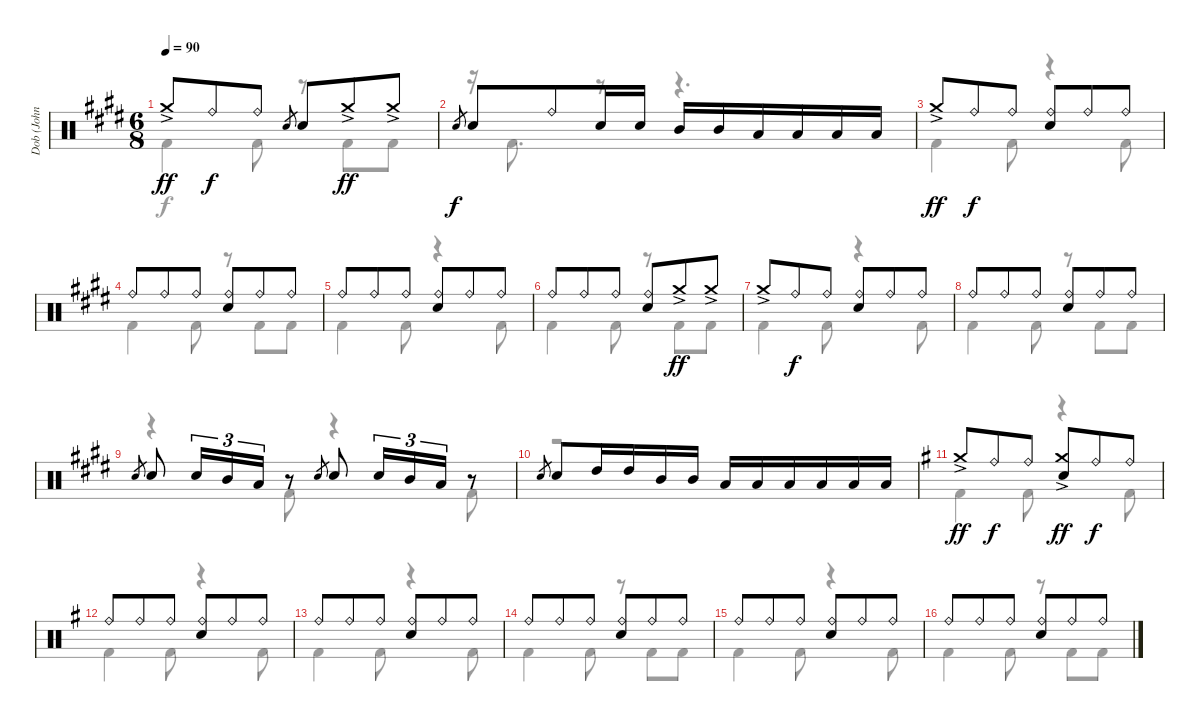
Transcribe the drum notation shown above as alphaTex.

\track ("Dob (John Macaluso)" "Dob (John ") {instrument percussion}
\staff {score}
\articulation defaults
\voice
\ts (6 8)
\tempo 90
\clef neutral
\ks e "Crash medium (hit)"{ac}.8{dy ff} "Ride (bell)".8{dy f} "Ride (bell)".8 "Electric Snare (hit)".8{gr} "Electric Snare (hit)".8 "Crash medium (hit)"{ac}.8{dy ff} "Crash medium (hit)"{ac}.8
|
"Electric Snare (hit)".8{gr dy f} "Electric Snare (hit)".8 "Ride (bell)".8 "Electric Snare (hit)".16 "Electric Snare (hit)".16 "Mid Tom (hit)".16 "Mid Tom (hit)".16 "Low Tom (hit)".16 "Low Tom (hit)".16 "Low Tom (hit)".16 "Low Tom (hit)".16 |
"Crash medium (hit)"{ac}.8{dy ff} "Ride (bell)".8{dy f} "Ride (bell)".8 ("Ride (bell)" "Electric Snare (hit)").8 "Ride (bell)".8 "Ride (bell)".8 |
"Ride (bell)".8 "Ride (bell)".8 "Ride (bell)".8 ("Ride (bell)" "Electric Snare (hit)").8 "Ride (bell)".8 "Ride (bell)".8 |
"Ride (bell)".8 "Ride (bell)".8 "Ride (bell)".8 ("Ride (bell)" "Electric Snare (hit)").8 "Ride (bell)".8 "Ride (bell)".8 |
"Ride (bell)".8 "Ride (bell)".8 "Ride (bell)".8 ("Ride (bell)" "Electric Snare (hit)").8 "Crash medium (hit)"{ac}.8{dy ff} "Crash medium (hit)"{ac}.8 |
"Crash medium (hit)"{ac}.8 "Ride (bell)".8{dy f} "Ride (bell)".8 ("Ride (bell)" "Electric Snare (hit)").8 "Ride (bell)".8 "Ride (bell)".8 |
"Ride (bell)".8 "Ride (bell)".8 "Ride (bell)".8 ("Ride (bell)" "Electric Snare (hit)").8 "Ride (bell)".8 "Ride (bell)".8 |
"Electric Snare (hit)".8{gr} "Electric Snare (hit)".8 "Electric Snare (hit)".16{tu (3 2)} "Mid Tom (hit)".16{tu (3 2)} "Low Tom (hit)".16{tu (3 2)} r.8 "Electric Snare (hit)".8{gr} "Electric Snare (hit)".8 "Electric Snare (hit)".16{tu (3 2)} "Mid Tom (hit)".16{tu (3 2)} "Low Tom (hit)".16{tu (3 2)} r.8 |
"Electric Snare (hit)".8{gr} "Electric Snare (hit)".8 "High Tom (hit)".16 "High Tom (hit)".16 "Mid Tom (hit)".16 "Mid Tom (hit)".16 "Low Tom (hit)".16 "Low Tom (hit)".16 "Low Tom (hit)".16 "Low Tom (hit)".16 "Low Tom (hit)".16 "Low Tom (hit)".16 |
\ks g "Crash medium (hit)"{ac}.8{dy ff} "Ride (bell)".8{dy f} "Ride (bell)".8
("Crash medium (hit)"{ac} "Electric Snare (hit)").8{dy ff} "Ride (bell)".8{dy f} "Ride (bell)".8 |
"Ride (bell)".8 "Ride (bell)".8 "Ride (bell)".8 ("Ride (bell)" "Electric Snare (hit)").8 "Ride (bell)".8 "Ride (bell)".8 |
"Ride (bell)".8 "Ride (bell)".8 "Ride (bell)".8 ("Ride (bell)" "Electric Snare (hit)").8 "Ride (bell)".8 "Ride (bell)".8 |
"Ride (bell)".8 "Ride (bell)".8 "Ride (bell)".8 ("Ride (bell)" "Electric Snare (hit)").8 "Ride (bell)".8 "Ride (bell)".8 |
"Ride (bell)".8 "Ride (bell)".8 "Ride (bell)".8 ("Ride (bell)" "Electric Snare (hit)").8 "Ride (bell)".8 "Ride (bell)".8 |
"Ride (bell)".8 "Ride (bell)".8 "Ride (bell)".8 ("Ride (bell)" "Electric Snare (hit)").8 "Ride (bell)".8 "Ride (bell)".8
\voice
\clef neutral
\ottava regular
\simile none
\ks e "Kick (hit) 2".4{dy f} "Kick (hit) 2".8
r.8 "Kick (hit) 2".8 "Kick (hit) 2".8 |
r.16 "Kick (hit) 2".8{d} r.8 r.4{d} |
"Kick (hit) 2".4 "Kick (hit) 2".8 r.4 "Kick (hit) 2".8 |
"Kick (hit) 2".4 "Kick (hit) 2".8 r.8 "Kick (hit) 2".8 "Kick (hit) 2".8 |
"Kick (hit) 2".4 "Kick (hit) 2".8 r.4 "Kick (hit) 2".8 |
"Kick (hit) 2".4 "Kick (hit) 2".8 r.8 "Kick (hit) 2".8 "Kick (hit) 2".8 |
"Kick (hit) 2".4 "Kick (hit) 2".8 r.4 "Kick (hit) 2".8 |
"Kick (hit) 2".4 "Kick (hit) 2".8 r.8 "Kick (hit) 2".8 "Kick (hit) 2".8 |
r.4 "Kick (hit) 2".8 r.4 "Kick (hit) 2".8 |
r.2{d} |
\ks g "Kick (hit) 2".4 "Kick (hit) 2".8
r.4 "Kick (hit) 2".8 |
"Kick (hit) 2".4 "Kick (hit) 2".8 r.4 "Kick (hit) 2".8 |
"Kick (hit) 2".4 "Kick (hit) 2".8 r.4 "Kick (hit) 2".8 |
"Kick (hit) 2".4 "Kick (hit) 2".8 r.8 "Kick (hit) 2".8 "Kick (hit) 2".8 |
"Kick (hit) 2".4 "Kick (hit) 2".8 r.4 "Kick (hit) 2".8 |
"Kick (hit) 2".4 "Kick (hit) 2".8 r.8 "Kick (hit) 2".8 "Kick (hit) 2".8
